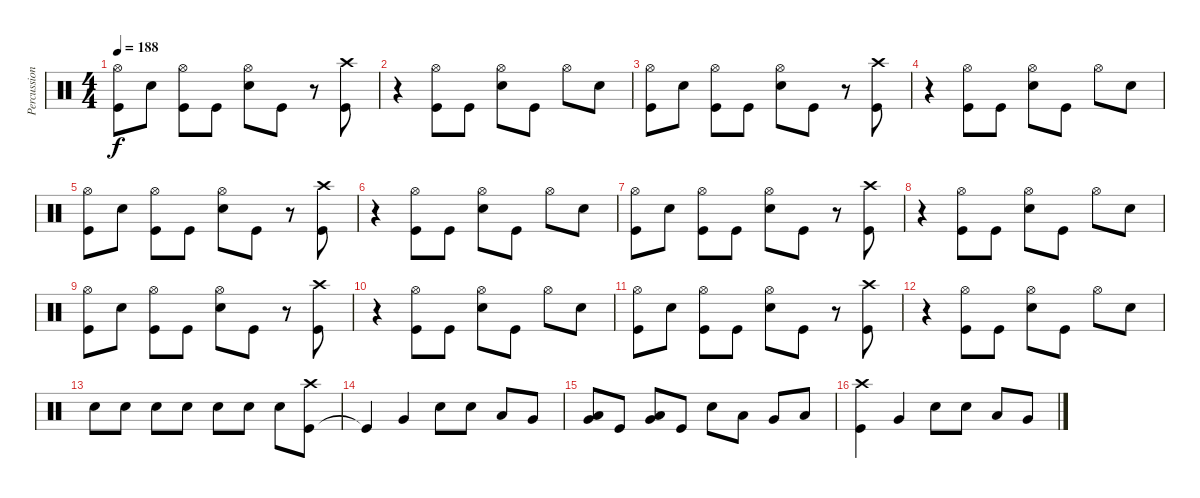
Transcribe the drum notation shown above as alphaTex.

\track ("Percussion" "Percussion") {instrument percussion}
\staff {score}
\articulation defaults
\ts (4 4)
\tempo 188
\clef neutral
\ks c
("Kick (hit)" "Hi-Hat (open)").8{dy f} "Snare (hit) 2".8 ("Kick (hit)" "Hi-Hat (open)").8 "Kick (hit)".8 ("Snare (hit) 2" "Hi-Hat (open)").8 "Kick (hit)".8 r.8 ("Kick (hit)" "Crash high (hit)").8 |
r.4 ("Kick (hit)" "Hi-Hat (open)").8 "Kick (hit)".8 ("Snare (hit) 2" "Hi-Hat (open)").8 "Kick (hit)".8 "Hi-Hat (open)".8 "Snare (hit) 2".8 |
("Kick (hit)" "Hi-Hat (open)").8 "Snare (hit) 2".8 ("Kick (hit)" "Hi-Hat (open)").8 "Kick (hit)".8 ("Snare (hit) 2" "Hi-Hat (open)").8 "Kick (hit)".8 r.8 ("Kick (hit)" "Crash high (hit)").8 |
r.4 ("Kick (hit)" "Hi-Hat (open)").8 "Kick (hit)".8 ("Snare (hit) 2" "Hi-Hat (open)").8 "Kick (hit)".8 "Hi-Hat (open)".8 "Snare (hit) 2".8 |
("Kick (hit)" "Hi-Hat (open)").8 "Snare (hit) 2".8 ("Kick (hit)" "Hi-Hat (open)").8 "Kick (hit)".8 ("Snare (hit) 2" "Hi-Hat (open)").8 "Kick (hit)".8 r.8 ("Kick (hit)" "Crash high (hit)").8 |
r.4 ("Kick (hit)" "Hi-Hat (open)").8 "Kick (hit)".8 ("Snare (hit) 2" "Hi-Hat (open)").8 "Kick (hit)".8 "Hi-Hat (open)".8 "Snare (hit) 2".8 |
("Kick (hit)" "Hi-Hat (open)").8 "Snare (hit) 2".8 ("Kick (hit)" "Hi-Hat (open)").8 "Kick (hit)".8 ("Snare (hit) 2" "Hi-Hat (open)").8 "Kick (hit)".8 r.8 ("Kick (hit)" "Crash high (hit)").8 |
r.4 ("Kick (hit)" "Hi-Hat (open)").8 "Kick (hit)".8 ("Snare (hit) 2" "Hi-Hat (open)").8 "Kick (hit)".8 "Hi-Hat (open)".8 "Snare (hit) 2".8 |
("Kick (hit)" "Hi-Hat (open)").8 "Snare (hit) 2".8 ("Kick (hit)" "Hi-Hat (open)").8 "Kick (hit)".8 ("Snare (hit) 2" "Hi-Hat (open)").8 "Kick (hit)".8 r.8 ("Kick (hit)" "Crash high (hit)").8 |
r.4 ("Kick (hit)" "Hi-Hat (open)").8 "Kick (hit)".8 ("Snare (hit) 2" "Hi-Hat (open)").8 "Kick (hit)".8 "Hi-Hat (open)".8 "Snare (hit) 2".8 |
("Kick (hit)" "Hi-Hat (open)").8 "Snare (hit) 2".8 ("Kick (hit)" "Hi-Hat (open)").8 "Kick (hit)".8 ("Snare (hit) 2" "Hi-Hat (open)").8 "Kick (hit)".8 r.8 ("Kick (hit)" "Crash high (hit)").8 |
r.4 ("Kick (hit)" "Hi-Hat (open)").8 "Kick (hit)".8 ("Snare (hit) 2" "Hi-Hat (open)").8 "Kick (hit)".8 "Hi-Hat (open)".8 "Snare (hit) 2".8 |
"Snare (hit) 2".8 "Snare (hit) 2".8 "Snare (hit) 2".8 "Snare (hit) 2".8 "Snare (hit) 2".8 "Snare (hit) 2".8 "Snare (hit) 2".8 ("Kick (hit)" "Crash high (hit)").8 |
"Kick (hit)"{t}.4 "Very Low Tom (hit)".4 "Snare (hit) 2".8 "Snare (hit) 2".8 "Low Tom (hit)".8 "Very Low Tom (hit)".8 |
("Low Floor Tom (hit)" "Very Low Tom (hit)").8 "Kick (hit)".8 ("Low Floor Tom (hit)" "Very Low Tom (hit)").8 "Kick (hit)".8 "Snare (hit) 2".8 "Low Floor Tom (hit)".8 "Very Low Tom (hit)".8 "Low Floor Tom (hit)".8 |
("Kick (hit)" "Crash high (hit)").4 "Very Low Tom (hit)".4 "Snare (hit) 2".8 "Snare (hit) 2".8 "Low Tom (hit)".8 "Very Low Tom (hit)".8
